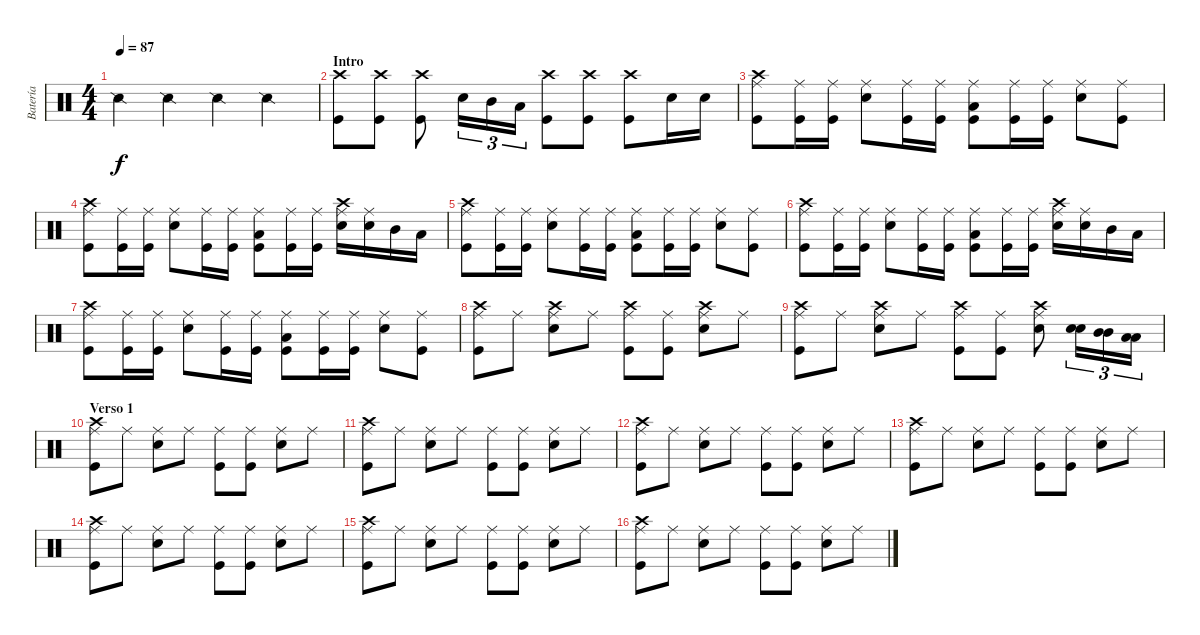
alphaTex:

\track ("Batería" "Batería") {instrument percussion}
\staff {score}
\articulation defaults
\ts (4 4)
\tempo 87
\clef neutral
\ks c "Snare (side stick) 2".4{dy f} "Snare (side stick) 2".4 "Snare (side stick) 2".4 "Snare (side stick) 2".4
|
\section ("" "Intro")
("Crash high (hit)" "Kick (hit)").8 ("Crash high (hit)" "Kick (hit)").8 ("Crash high (hit)" "Kick (hit)").8 "Snare (hit) 2".16{tu (3 2)} "Mid Tom (hit)".16{tu (3 2)} "Low Tom (hit)".16{tu (3 2)} ("Crash high (hit)" "Kick (hit)").8 ("Crash high (hit)" "Kick (hit)").8 ("Crash high (hit)" "Kick (hit)").8 "Snare (hit) 2".16 "Snare (hit) 2".16 |
("Crash high (hit)" "Ride (middle)" "Kick (hit)").8 ("Ride (middle)" "Kick (hit)").16 ("Ride (middle)" "Kick (hit)").16 ("Ride (middle)" "Snare (hit) 2").8 ("Ride (middle)" "Kick (hit)").16 ("Ride (middle)" "Kick (hit)").16 ("Ride (middle)" "Low Tom (hit)" "Kick (hit)").8 ("Ride (middle)" "Kick (hit)").16 ("Ride (middle)" "Kick (hit)").16 ("Ride (middle)" "Snare (hit) 2").8 ("Ride (middle)" "Kick (hit)").8 |
("Crash high (hit)" "Ride (middle)" "Kick (hit)").8 ("Ride (middle)" "Kick (hit)").16 ("Ride (middle)" "Kick (hit)").16 ("Ride (middle)" "Snare (hit) 2").8 ("Ride (middle)" "Kick (hit)").16 ("Ride (middle)" "Kick (hit)").16 ("Ride (middle)" "Low Tom (hit)" "Kick (hit)").8 ("Ride (middle)" "Kick (hit)").16 ("Ride (middle)" "Kick (hit)").16 ("Crash high (hit)" "Ride (middle)" "Snare (hit) 2").16 ("Ride (middle)" "Snare (hit) 2").16 "Mid Tom (hit)".16 "Low Tom (hit)".16 |
("Crash high (hit)" "Ride (middle)" "Kick (hit)").8 ("Ride (middle)" "Kick (hit)").16 ("Ride (middle)" "Kick (hit)").16 ("Ride (middle)" "Snare (hit) 2").8 ("Ride (middle)" "Kick (hit)").16 ("Ride (middle)" "Kick (hit)").16 ("Ride (middle)" "Low Tom (hit)" "Kick (hit)").8 ("Ride (middle)" "Kick (hit)").16 ("Ride (middle)" "Kick (hit)").16 ("Ride (middle)" "Snare (hit) 2").8 ("Ride (middle)" "Kick (hit)").8 |
("Crash high (hit)" "Ride (middle)" "Kick (hit)").8 ("Ride (middle)" "Kick (hit)").16 ("Ride (middle)" "Kick (hit)").16 ("Ride (middle)" "Snare (hit) 2").8 ("Ride (middle)" "Kick (hit)").16 ("Ride (middle)" "Kick (hit)").16 ("Ride (middle)" "Low Tom (hit)" "Kick (hit)").8 ("Ride (middle)" "Kick (hit)").16 ("Ride (middle)" "Kick (hit)").16 ("Crash high (hit)" "Ride (middle)" "Snare (hit) 2").16 ("Ride (middle)" "Snare (hit) 2").16 "Mid Tom (hit)".16 "Low Tom (hit)".16 |
("Crash high (hit)" "Ride (middle)" "Kick (hit)").8 ("Ride (middle)" "Kick (hit)").16 ("Ride (middle)" "Kick (hit)").16 ("Ride (middle)" "Snare (hit) 2").8 ("Ride (middle)" "Kick (hit)").16 ("Ride (middle)" "Kick (hit)").16 ("Ride (middle)" "Low Tom (hit)" "Kick (hit)").8 ("Ride (middle)" "Kick (hit)").16 ("Ride (middle)" "Kick (hit)").16 ("Ride (middle)" "Snare (hit) 2").8 ("Ride (middle)" "Kick (hit)").8 |
("Crash high (hit)" "Ride (middle)" "Kick (hit)").8 "Ride (middle)".8 ("Crash high (hit)" "Ride (middle)" "Snare (hit) 2").8 "Ride (middle)".8 ("Crash high (hit)" "Ride (middle)" "Kick (hit)").8 ("Ride (middle)" "Kick (hit)").8 ("Crash high (hit)" "Ride (middle)" "Snare (hit) 2").8 "Ride (middle)".8 |
("Crash high (hit)" "Ride (middle)" "Kick (hit)").8 "Ride (middle)".8 ("Crash high (hit)" "Ride (middle)" "Snare (hit) 2").8 "Ride (middle)".8 ("Crash high (hit)" "Ride (middle)" "Kick (hit)").8 ("Ride (middle)" "Kick (hit)").8 ("Crash high (hit)" "Ride (middle)" "Snare (hit) 2").8 ("Snare (hit) 2" "Snare (hit) 2").16{tu (3 2)} ("Mid Tom (hit)" "Mid Tom (hit)").16{tu (3 2)} ("Low Tom (hit)" "Low Tom (hit)").16{tu (3 2)} |
\section ("" "Verso 1")
("Crash high (hit)" "Ride (middle)" "Kick (hit)").8 "Ride (middle)".8 ("Ride (middle)" "Snare (hit) 2").8 "Ride (middle)".8 ("Ride (middle)" "Kick (hit)").8 ("Ride (middle)" "Kick (hit)").8 ("Ride (middle)" "Snare (hit) 2").8 "Ride (middle)".8 |
("Crash high (hit)" "Ride (middle)" "Kick (hit)").8 "Ride (middle)".8 ("Ride (middle)" "Snare (hit) 2").8 "Ride (middle)".8 ("Ride (middle)" "Kick (hit)").8 ("Ride (middle)" "Kick (hit)").8 ("Ride (middle)" "Snare (hit) 2").8 "Ride (middle)".8 |
("Crash high (hit)" "Ride (middle)" "Kick (hit)").8 "Ride (middle)".8 ("Ride (middle)" "Snare (hit) 2").8 "Ride (middle)".8 ("Ride (middle)" "Kick (hit)").8 ("Ride (middle)" "Kick (hit)").8 ("Ride (middle)" "Snare (hit) 2").8 "Ride (middle)".8 |
("Crash high (hit)" "Ride (middle)" "Kick (hit)").8 "Ride (middle)".8 ("Ride (middle)" "Snare (hit) 2").8 "Ride (middle)".8 ("Ride (middle)" "Kick (hit)").8 ("Ride (middle)" "Kick (hit)").8 ("Ride (middle)" "Snare (hit) 2").8 "Ride (middle)".8 |
("Crash high (hit)" "Ride (middle)" "Kick (hit)").8 "Ride (middle)".8 ("Ride (middle)" "Snare (hit) 2").8 "Ride (middle)".8 ("Ride (middle)" "Kick (hit)").8 ("Ride (middle)" "Kick (hit)").8 ("Ride (middle)" "Snare (hit) 2").8 "Ride (middle)".8 |
("Crash high (hit)" "Ride (middle)" "Kick (hit)").8 "Ride (middle)".8 ("Ride (middle)" "Snare (hit) 2").8 "Ride (middle)".8 ("Ride (middle)" "Kick (hit)").8 ("Ride (middle)" "Kick (hit)").8 ("Ride (middle)" "Snare (hit) 2").8 "Ride (middle)".8 |
("Crash high (hit)" "Ride (middle)" "Kick (hit)").8 "Ride (middle)".8 ("Ride (middle)" "Snare (hit) 2").8 "Ride (middle)".8 ("Ride (middle)" "Kick (hit)").8 ("Ride (middle)" "Kick (hit)").8 ("Ride (middle)" "Snare (hit) 2").8 "Ride (middle)".8
